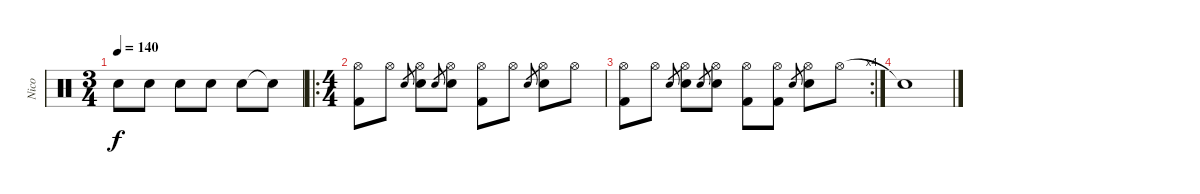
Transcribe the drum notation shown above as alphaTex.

\track ("Nico" "Nico") {instrument percussion}
\staff {score}
\articulation defaults
\ts (3 4)
\tempo 140
\clef neutral
\ks c "Snare (hit) 2".8{dy f} "Snare (hit) 2".8 "Snare (hit) 2".8 "Snare (hit) 2".8 "Snare (hit) 2".8 "Snare (hit)"{t}.8
|
\ro
\ts (4 4)
("Hi-Hat (open)" "Kick (hit) 2").8 "Hi-Hat (open)".8 "Snare (hit) 2".8{gr} ("Hi-Hat (open)" "Snare (hit) 2").8 "Snare (hit) 2".8{gr} ("Hi-Hat (open)" "Snare (hit) 2").8 ("Hi-Hat (open)" "Kick (hit) 2").8 "Hi-Hat (open)".8 "Snare (hit) 2".8{gr} ("Hi-Hat (open)" "Snare (hit) 2").8 "Hi-Hat (open)".8 |
\rc 4
("Hi-Hat (open)" "Kick (hit) 2").8 "Hi-Hat (open)".8 "Snare (hit) 2".8{gr} ("Hi-Hat (open)" "Snare (hit) 2").8 "Snare (hit) 2".8{gr} ("Hi-Hat (open)" "Snare (hit) 2").8 ("Hi-Hat (open)" "Kick (hit) 2").8 ("Hi-Hat (open)" "Kick (hit) 2").8 "Snare (hit) 2".8{gr} ("Hi-Hat (open)" "Snare (hit) 2").8 "Hi-Hat (open)".8 |
"Snare (hit)"{t}.1
